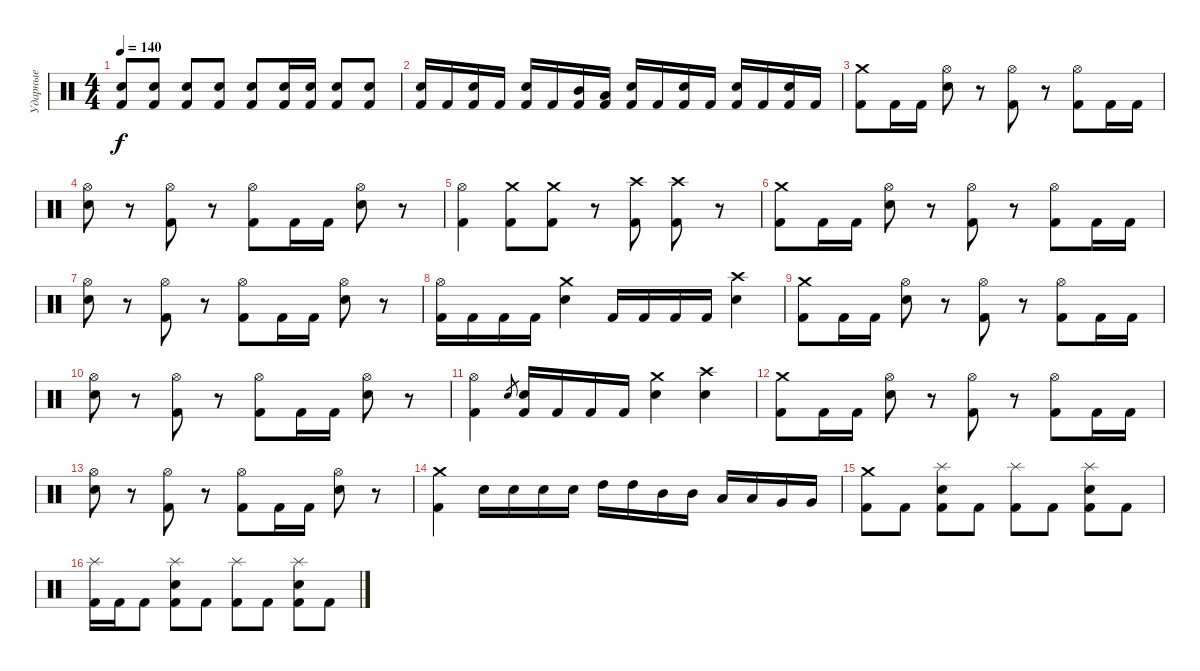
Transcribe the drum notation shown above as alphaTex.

\track ("Ударные" "Ударные") {instrument percussion}
\staff {score}
\articulation defaults
\ts (4 4)
\tempo 140
\clef neutral
\ks c
("Electric Snare (hit)" "Kick (hit) 2").8{dy f} ("Electric Snare (hit)" "Kick (hit) 2").8 ("Electric Snare (hit)" "Kick (hit) 2").8 ("Electric Snare (hit)" "Kick (hit) 2").8 ("Electric Snare (hit)" "Kick (hit) 2").8 ("Electric Snare (hit)" "Kick (hit) 2").16 ("Electric Snare (hit)" "Kick (hit) 2").16 ("Electric Snare (hit)" "Kick (hit) 2").8 ("Electric Snare (hit)" "Kick (hit) 2").8 |
("Electric Snare (hit)" "Kick (hit) 2").16 "Kick (hit) 2".16 ("Electric Snare (hit)" "Kick (hit) 2").16 "Kick (hit) 2".16 ("Electric Snare (hit)" "Kick (hit) 2").16 "Kick (hit) 2".16 ("Mid Tom (hit)" "Kick (hit) 2").16 ("Low Tom (hit)" "Kick (hit) 2").16 ("Electric Snare (hit)" "Kick (hit) 2").16 "Kick (hit) 2".16 ("Electric Snare (hit)" "Kick (hit) 2").16 "Kick (hit) 2".16 ("Electric Snare (hit)" "Kick (hit) 2").16 "Kick (hit) 2".16 ("Electric Snare (hit)" "Kick (hit) 2").16 "Kick (hit) 2".16 |
("Crash medium (hit)" "Kick (hit) 2").8 "Kick (hit) 2".16 "Kick (hit) 2".16 ("Hi-Hat (open)" "Electric Snare (hit)").8 r.8 ("Hi-Hat (open)" "Kick (hit) 2").8 r.8 ("Hi-Hat (open)" "Kick (hit) 2").8 "Kick (hit) 2".16 "Kick (hit) 2".16 |
("Hi-Hat (open)" "Electric Snare (hit)").8 r.8 ("Hi-Hat (open)" "Kick (hit) 2").8 r.8 ("Hi-Hat (open)" "Kick (hit) 2").8 "Kick (hit) 2".16 "Kick (hit) 2".16 ("Hi-Hat (open)" "Electric Snare (hit)").8 r.8 |
("Hi-Hat (open)" "Kick (hit) 2").4 ("Crash medium (hit)" "Kick (hit) 2").8 ("Crash medium (hit)" "Kick (hit) 2").8 r.8 ("Crash high (hit)" "Kick (hit) 2").8 ("Crash high (hit)" "Kick (hit) 2").8 r.8 |
("Crash medium (hit)" "Kick (hit) 2").8 "Kick (hit) 2".16 "Kick (hit) 2".16 ("Hi-Hat (open)" "Electric Snare (hit)").8 r.8 ("Hi-Hat (open)" "Kick (hit) 2").8 r.8 ("Hi-Hat (open)" "Kick (hit) 2").8 "Kick (hit) 2".16 "Kick (hit) 2".16 |
("Hi-Hat (open)" "Electric Snare (hit)").8 r.8 ("Hi-Hat (open)" "Kick (hit) 2").8 r.8 ("Hi-Hat (open)" "Kick (hit) 2").8 "Kick (hit) 2".16 "Kick (hit) 2".16 ("Hi-Hat (open)" "Electric Snare (hit)").8 r.8 |
("Hi-Hat (open)" "Kick (hit) 2").16 "Kick (hit) 2".16 "Kick (hit) 2".16 "Kick (hit) 2".16 ("Crash medium (hit)" "Electric Snare (hit)").4 "Kick (hit) 2".16 "Kick (hit) 2".16 "Kick (hit) 2".16 "Kick (hit) 2".16 ("Crash high (hit)" "Electric Snare (hit)").4 |
("Crash medium (hit)" "Kick (hit) 2").8 "Kick (hit) 2".16 "Kick (hit) 2".16 ("Hi-Hat (open)" "Electric Snare (hit)").8 r.8 ("Hi-Hat (open)" "Kick (hit) 2").8 r.8 ("Hi-Hat (open)" "Kick (hit) 2").8 "Kick (hit) 2".16 "Kick (hit) 2".16 |
("Hi-Hat (open)" "Electric Snare (hit)").8 r.8 ("Hi-Hat (open)" "Kick (hit) 2").8 r.8 ("Hi-Hat (open)" "Kick (hit) 2").8 "Kick (hit) 2".16 "Kick (hit) 2".16 ("Hi-Hat (open)" "Electric Snare (hit)").8 r.8 |
("Hi-Hat (open)" "Kick (hit) 2").4 "Electric Snare (hit)".8{gr} ("Electric Snare (hit)" "Kick (hit) 2").16 "Kick (hit) 2".16 "Kick (hit) 2".16 "Kick (hit) 2".16 ("Crash medium (hit)" "Electric Snare (hit)").4 ("Crash high (hit)" "Electric Snare (hit)").4 |
("Crash medium (hit)" "Kick (hit) 2").8 "Kick (hit) 2".16 "Kick (hit) 2".16 ("Hi-Hat (open)" "Electric Snare (hit)").8 r.8 ("Hi-Hat (open)" "Kick (hit) 2").8 r.8 ("Hi-Hat (open)" "Kick (hit) 2").8 "Kick (hit) 2".16 "Kick (hit) 2".16 |
("Hi-Hat (open)" "Electric Snare (hit)").8 r.8 ("Hi-Hat (open)" "Kick (hit) 2").8 r.8 ("Hi-Hat (open)" "Kick (hit) 2").8 "Kick (hit) 2".16 "Kick (hit) 2".16 ("Hi-Hat (open)" "Electric Snare (hit)").8 r.8 |
("Crash medium (hit)" "Kick (hit) 2").4 "Electric Snare (hit)".16 "Electric Snare (hit)".16 "Electric Snare (hit)".16 "Electric Snare (hit)".16 "High Tom (hit)".16 "High Tom (hit)".16 "Mid Tom (hit)".16 "Mid Tom (hit)".16 "Low Tom (hit)".16 "Low Tom (hit)".16 "Very Low Tom (hit)".16 "Very Low Tom (hit)".16 |
("Crash medium (hit)" "Kick (hit) 2").8 "Kick (hit) 2".8 ("Splash (hit)" "Electric Snare (hit)" "Kick (hit) 2").8 "Kick (hit) 2".8 ("Splash (hit)" "Kick (hit) 2").8 "Kick (hit) 2".8 ("Splash (hit)" "Electric Snare (hit)" "Kick (hit) 2").8 "Kick (hit) 2".8 |
("Splash (hit)" "Kick (hit) 2").16 "Kick (hit) 2".16 "Kick (hit) 2".8 ("Splash (hit)" "Electric Snare (hit)" "Kick (hit) 2").8 "Kick (hit) 2".8 ("Splash (hit)" "Kick (hit) 2").8 "Kick (hit) 2".8 ("Splash (hit)" "Electric Snare (hit)" "Kick (hit) 2").8 "Kick (hit) 2".8
